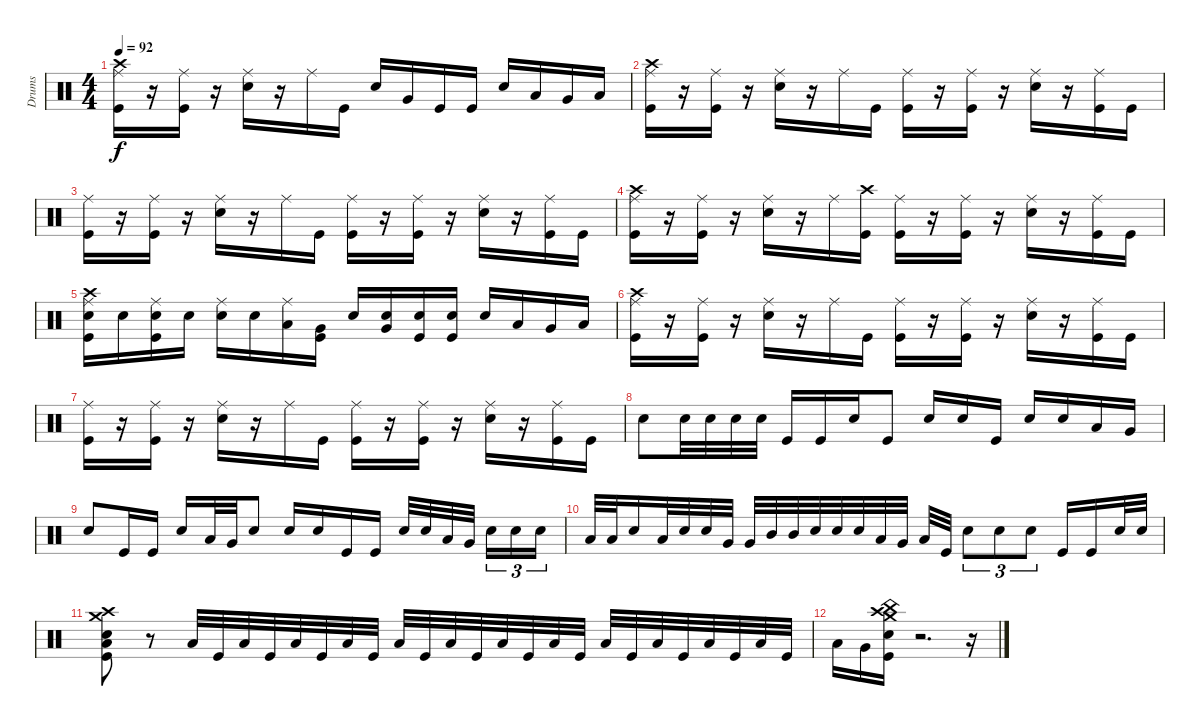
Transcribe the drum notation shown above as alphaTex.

\track ("Drums" "Drums") {instrument percussion}
\staff {score}
\articulation defaults
\ts (4 4)
\tempo 92
\clef neutral
\ks c
("Ride (middle)" "Crash high (hit)" "Kick (hit)").16{dy f} r.16 ("Ride (middle)" "Kick (hit)").16 r.16 ("Ride (middle)" "Snare (hit) 2").16 r.16 "Ride (middle)".16 "Kick (hit)".16 "Snare (hit) 2".16 "Very Low Tom (hit)".16 "Kick (hit)".16 "Kick (hit)".16 "Snare (hit) 2".16 "Low Tom (hit)".16 "Very Low Tom (hit)".16 "Low Tom (hit)".16 |
("Ride (middle)" "Crash high (hit)" "Kick (hit)").16 r.16 ("Ride (middle)" "Kick (hit)").16 r.16 ("Ride (middle)" "Snare (hit) 2").16 r.16 "Ride (middle)".16 "Kick (hit)".16 ("Ride (middle)" "Kick (hit)").16 r.16 ("Ride (middle)" "Kick (hit)").16 r.16 ("Ride (middle)" "Snare (hit) 2").16 r.16 ("Ride (middle)" "Kick (hit)").16 "Kick (hit)".16 |
("Ride (middle)" "Kick (hit)").16 r.16 ("Ride (middle)" "Kick (hit)").16 r.16 ("Ride (middle)" "Snare (hit) 2").16 r.16 "Ride (middle)".16 "Kick (hit)".16 ("Ride (middle)" "Kick (hit)").16 r.16 ("Ride (middle)" "Kick (hit)").16 r.16 ("Ride (middle)" "Snare (hit) 2").16 r.16 ("Ride (middle)" "Kick (hit)").16 "Kick (hit)".16 |
("Ride (middle)" "Crash high (hit)" "Kick (hit)").16 r.16 ("Ride (middle)" "Kick (hit)").16 r.16 ("Ride (middle)" "Snare (hit) 2").16 r.16 "Ride (middle)".16 ("Crash high (hit)" "Kick (hit)").16 ("Ride (middle)" "Kick (hit)").16 r.16 ("Ride (middle)" "Kick (hit)").16 r.16 ("Ride (middle)" "Snare (hit) 2").16 r.16 ("Ride (middle)" "Kick (hit)").16 "Kick (hit)".16 |
("Ride (middle)" "Crash high (hit)" "Snare (hit) 2" "Kick (hit)").16 "Snare (hit) 2".16 ("Ride (middle)" "Snare (hit) 2" "Kick (hit)").16 "Snare (hit) 2".16 ("Ride (middle)" "Snare (hit) 2").16 "Snare (hit) 2".16 ("Ride (middle)" "Low Tom (hit)").16 ("Very Low Tom (hit)" "Kick (hit)").16 "Snare (hit) 2".16 ("Snare (hit) 2" "Very Low Tom (hit)").16 ("Snare (hit) 2" "Kick (hit)").16 ("Snare (hit) 2" "Kick (hit)").16 "Snare (hit) 2".16 "Low Tom (hit)".16 "Very Low Tom (hit)".16 "Low Tom (hit)".16 |
("Ride (middle)" "Crash high (hit)" "Kick (hit)").16 r.16 ("Ride (middle)" "Kick (hit)").16 r.16 ("Ride (middle)" "Snare (hit) 2").16 r.16 "Ride (middle)".16 "Kick (hit)".16 ("Ride (middle)" "Kick (hit)").16 r.16 ("Ride (middle)" "Kick (hit)").16 r.16 ("Ride (middle)" "Snare (hit) 2").16 r.16 ("Ride (middle)" "Kick (hit)").16 "Kick (hit)".16 |
("Ride (middle)" "Kick (hit)").16 r.16 ("Ride (middle)" "Kick (hit)").16 r.16 ("Ride (middle)" "Snare (hit) 2").16 r.16 "Ride (middle)".16 "Kick (hit)".16 ("Ride (middle)" "Kick (hit)").16 r.16 ("Ride (middle)" "Kick (hit)").16 r.16 ("Ride (middle)" "Snare (hit) 2").16 r.16 ("Ride (middle)" "Kick (hit)").16 "Kick (hit)".16 |
"Snare (hit) 2".8 "Snare (hit) 2".32 "Snare (hit) 2".32 "Snare (hit) 2".32 "Snare (hit) 2".32 "Kick (hit)".16 "Kick (hit)".16 "Snare (hit) 2".16 "Kick (hit)".8 "Snare (hit) 2".16 "Snare (hit) 2".16 "Kick (hit)".16 "Snare (hit) 2".16 "Snare (hit) 2".16 "Low Tom (hit)".16 "Very Low Tom (hit)".16 |
"Snare (hit) 2".8 "Kick (hit)".16 "Kick (hit)".16 "Snare (hit) 2".16 "Low Tom (hit)".32 "Very Low Tom (hit)".32 "Snare (hit) 2".8 "Snare (hit) 2".16 "Snare (hit) 2".16 "Kick (hit)".16 "Kick (hit)".16 "Snare (hit) 2".32 "Snare (hit) 2".32 "Low Tom (hit)".32 "Very Low Tom (hit)".32 "Snare (hit) 2".16{tu (3 2)} "Snare (hit) 2".16{tu (3 2)} "Snare (hit) 2".16{tu (3 2)} |
"Low Tom (hit)".32 "Low Tom (hit)".32 "Snare (hit) 2".16 "Low Tom (hit)".32 "Snare (hit) 2".32 "Snare (hit) 2".32 "Very Low Tom (hit)".32 "Very Low Tom (hit)".32 "Mid Tom (hit)".32 "Mid Tom (hit)".32 "Snare (hit) 2".32 "Snare (hit) 2".32 "Snare (hit) 2".32 "Low Tom (hit)".32 "Very Low Tom (hit)".32 "Low Floor Tom (hit)".32 "Kick (hit)".32 "Snare (hit) 2".8{tu (3 2)} "Snare (hit) 2".8{tu (3 2)} "Snare (hit) 2".8{tu (3 2)} "Kick (hit)".16 "Kick (hit)".16 "Snare (hit) 2".32 "Snare (hit) 2".32 |
("Crash medium (hit)" "Crash high (hit)" "Low Floor Tom (hit)" "Snare (hit) 2" "Kick (hit)").8 r.8{volume 8} "Low Floor Tom (hit)".32{volume 16} "Kick (hit)".32 "Low Floor Tom (hit)".32 "Kick (hit)".32 "Low Floor Tom (hit)".32 "Kick (hit)".32 "Low Floor Tom (hit)".32 "Kick (hit)".32 "Low Floor Tom (hit)".32 "Kick (hit)".32 "Low Floor Tom (hit)".32 "Kick (hit)".32 "Low Floor Tom (hit)".32 "Kick (hit)".32 "Low Floor Tom (hit)".32 "Kick (hit)".32 "Low Floor Tom (hit)".32 "Kick (hit)".32 "Low Floor Tom (hit)".32 "Kick (hit)".32 "Low Floor Tom (hit)".32 "Kick (hit)".32 "Low Floor Tom (hit)".32 "Kick (hit)".32 |
"Low Tom (hit)".16 "Very Low Tom (hit)".16 ("Crash medium (hit)" "China (hit)" "Crash high (hit)" "Snare (hit) 2" "Kick (hit)").16 r.2{d} r.16
